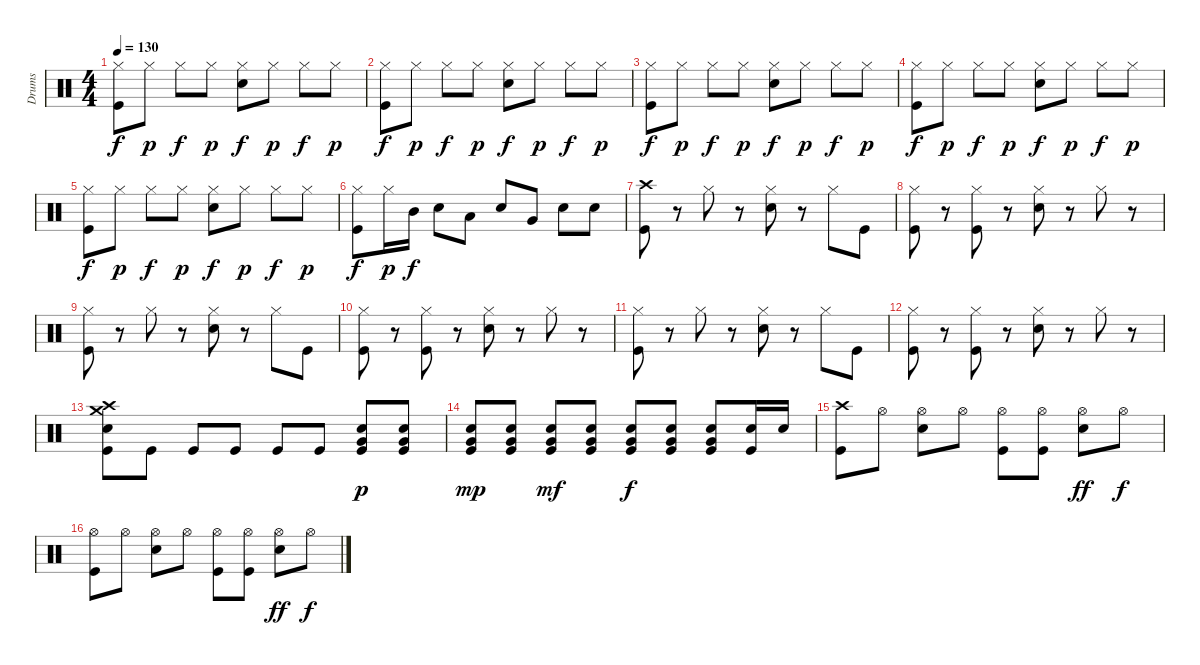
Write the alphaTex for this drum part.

\track ("Drums" "Drums") {instrument percussion}
\staff {score}
\articulation defaults
\ts (4 4)
\tempo 130
\clef neutral
\ks c
("Hi-Hat (closed)" "Kick (hit)").8{dy f} "Hi-Hat (closed)".8{dy p} "Hi-Hat (closed)".8{dy f} "Hi-Hat (closed)".8{dy p} ("Hi-Hat (closed)" "Snare (hit) 2").8{dy f} "Hi-Hat (closed)".8{dy p} "Hi-Hat (closed)".8{dy f} "Hi-Hat (closed)".8{dy p} |
("Hi-Hat (closed)" "Kick (hit)").8{dy f} "Hi-Hat (closed)".8{dy p} "Hi-Hat (closed)".8{dy f} "Hi-Hat (closed)".8{dy p} ("Hi-Hat (closed)" "Snare (hit) 2").8{dy f} "Hi-Hat (closed)".8{dy p} "Hi-Hat (closed)".8{dy f} "Hi-Hat (closed)".8{dy p} |
("Hi-Hat (closed)" "Kick (hit)").8{dy f} "Hi-Hat (closed)".8{dy p} "Hi-Hat (closed)".8{dy f} "Hi-Hat (closed)".8{dy p} ("Hi-Hat (closed)" "Snare (hit) 2").8{dy f} "Hi-Hat (closed)".8{dy p} "Hi-Hat (closed)".8{dy f} "Hi-Hat (closed)".8{dy p} |
("Hi-Hat (closed)" "Kick (hit)").8{dy f} "Hi-Hat (closed)".8{dy p} "Hi-Hat (closed)".8{dy f} "Hi-Hat (closed)".8{dy p} ("Hi-Hat (closed)" "Snare (hit) 2").8{dy f} "Hi-Hat (closed)".8{dy p} "Hi-Hat (closed)".8{dy f} "Hi-Hat (closed)".8{dy p} |
("Hi-Hat (closed)" "Kick (hit)").8{dy f} "Hi-Hat (closed)".8{dy p} "Hi-Hat (closed)".8{dy f} "Hi-Hat (closed)".8{dy p} ("Hi-Hat (closed)" "Snare (hit) 2").8{dy f} "Hi-Hat (closed)".8{dy p} "Hi-Hat (closed)".8{dy f} "Hi-Hat (closed)".8{dy p} |
("Hi-Hat (closed)" "Kick (hit)").8{dy f} "Hi-Hat (closed)".16{dy p} "Mid Tom (hit)".16{dy f} "Snare (hit) 2".8 "Low Tom (hit)".8 "Snare (hit) 2".8 "Very Low Tom (hit)".8 "Snare (hit) 2".8 "Snare (hit) 2".8 |
("Crash high (hit)" "Kick (hit)").8 r.8 "Hi-Hat (closed)".8 r.8 ("Hi-Hat (closed)" "Snare (hit) 2").8 r.8 "Hi-Hat (closed)".8 "Kick (hit)".8 |
("Hi-Hat (closed)" "Kick (hit)").8 r.8 ("Hi-Hat (closed)" "Kick (hit)").8 r.8 ("Hi-Hat (closed)" "Snare (hit) 2").8 r.8 "Hi-Hat (closed)".8 r.8 |
("Hi-Hat (closed)" "Kick (hit)").8 r.8 "Hi-Hat (closed)".8 r.8 ("Hi-Hat (closed)" "Snare (hit) 2").8 r.8 "Hi-Hat (closed)".8 "Kick (hit)".8 |
("Hi-Hat (closed)" "Kick (hit)").8 r.8 ("Hi-Hat (closed)" "Kick (hit)").8 r.8 ("Hi-Hat (closed)" "Snare (hit) 2").8 r.8 "Hi-Hat (closed)".8 r.8 |
("Hi-Hat (closed)" "Kick (hit)").8 r.8 "Hi-Hat (closed)".8 r.8 ("Hi-Hat (closed)" "Snare (hit) 2").8 r.8 "Hi-Hat (closed)".8 "Kick (hit)".8 |
("Hi-Hat (closed)" "Kick (hit)").8 r.8 ("Hi-Hat (closed)" "Kick (hit)").8 r.8 ("Hi-Hat (closed)" "Snare (hit) 2").8 r.8 "Hi-Hat (closed)".8 r.8 |
("Crash high (hit)" "Crash medium (hit)" "Snare (hit) 2" "Kick (hit)").8 "Kick (hit)".8 "Kick (hit)".8 "Kick (hit)".8 "Kick (hit)".8 "Kick (hit)".8 ("Very Low Tom (hit)" "Snare (hit) 2" "Kick (hit)").8{dy p} ("Very Low Tom (hit)" "Snare (hit) 2" "Kick (hit)").8 |
("Very Low Tom (hit)" "Snare (hit) 2" "Kick (hit)").8{dy mp} ("Very Low Tom (hit)" "Snare (hit) 2" "Kick (hit)").8 ("Very Low Tom (hit)" "Snare (hit) 2" "Kick (hit)").8{dy mf} ("Very Low Tom (hit)" "Snare (hit) 2" "Kick (hit)").8 ("Very Low Tom (hit)" "Snare (hit) 2" "Kick (hit)").8{dy f} ("Very Low Tom (hit)" "Snare (hit) 2" "Kick (hit)").8 ("Very Low Tom (hit)" "Snare (hit) 2" "Kick (hit)").8 ("Snare (hit) 2" "Kick (hit)").16 "Snare (hit) 2".16 |
("Crash high (hit)" "Kick (hit)").8 "Hi-Hat (open)".8 ("Hi-Hat (open)" "Snare (hit) 2").8 "Hi-Hat (open)".8 ("Hi-Hat (open)" "Kick (hit)").8 ("Hi-Hat (open)" "Kick (hit)").8 ("Hi-Hat (open)" "Snare (hit) 2").8{dy ff} "Hi-Hat (open)".8{dy f} |
("Hi-Hat (open)" "Kick (hit)").8 "Hi-Hat (open)".8 ("Hi-Hat (open)" "Snare (hit) 2").8 "Hi-Hat (open)".8 ("Hi-Hat (open)" "Kick (hit)").8 ("Hi-Hat (open)" "Kick (hit)").8 ("Hi-Hat (open)" "Snare (hit) 2").8{dy ff} "Hi-Hat (open)".8{dy f}
